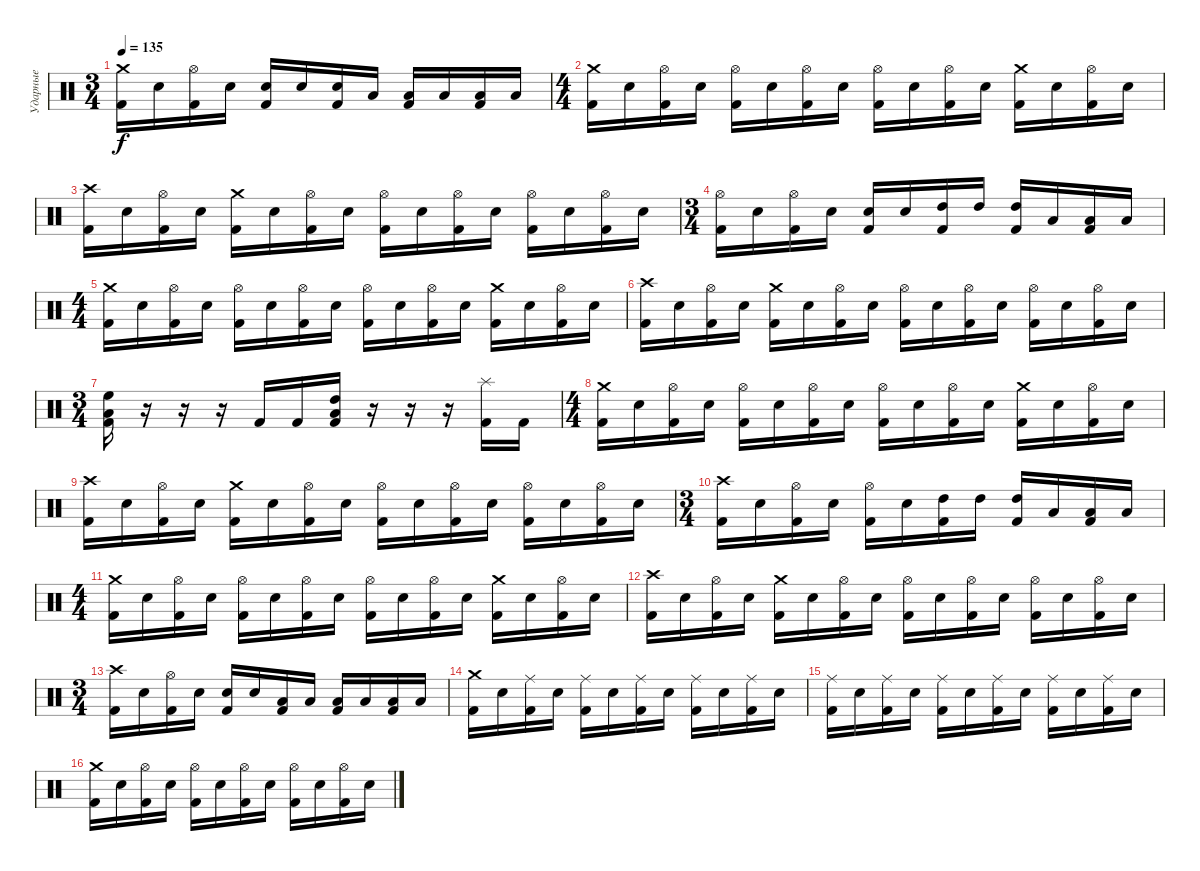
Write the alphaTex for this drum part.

\track ("Ударные" "Ударные") {instrument percussion}
\staff {score}
\articulation defaults
\ts (3 4)
\tempo 135
\clef neutral
\ks c
("Crash medium (hit)" "Kick (hit) 2").16{dy f} "Electric Snare (hit)".16 ("Hi-Hat (open)" "Kick (hit) 2").16 "Electric Snare (hit)".16 ("Electric Snare (hit)" "Kick (hit) 2").16 "Electric Snare (hit)".16 ("Electric Snare (hit)" "Kick (hit) 2").16 "Low Tom (hit)".16 ("Low Tom (hit)" "Kick (hit) 2").16 "Low Floor Tom (hit)".16 ("Low Floor Tom (hit)" "Kick (hit) 2").16 "Low Floor Tom (hit)".16 |
\ts (4 4)
("Crash medium (hit)" "Kick (hit) 2").16 "Electric Snare (hit)".16 ("Hi-Hat (open)" "Kick (hit) 2").16 "Electric Snare (hit)".16 ("Hi-Hat (open)" "Kick (hit) 2").16 "Electric Snare (hit)".16 ("Hi-Hat (open)" "Kick (hit) 2").16 "Electric Snare (hit)".16 ("Hi-Hat (open)" "Kick (hit) 2").16 "Electric Snare (hit)".16 ("Hi-Hat (open)" "Kick (hit) 2").16 "Electric Snare (hit)".16 ("Crash medium (hit)" "Kick (hit) 2").16 "Electric Snare (hit)".16 ("Hi-Hat (open)" "Kick (hit) 2").16 "Electric Snare (hit)".16 |
("Crash high (hit)" "Kick (hit) 2").16 "Electric Snare (hit)".16 ("Hi-Hat (open)" "Kick (hit) 2").16 "Electric Snare (hit)".16 ("Crash medium (hit)" "Kick (hit) 2").16 "Electric Snare (hit)".16 ("Hi-Hat (open)" "Kick (hit) 2").16 "Electric Snare (hit)".16 ("Hi-Hat (open)" "Kick (hit) 2").16 "Electric Snare (hit)".16 ("Hi-Hat (open)" "Kick (hit) 2").16 "Electric Snare (hit)".16 ("Hi-Hat (open)" "Kick (hit) 2").16 "Electric Snare (hit)".16 ("Hi-Hat (open)" "Kick (hit) 2").16 "Electric Snare (hit)".16 |
\ts (3 4)
("Hi-Hat (open)" "Kick (hit) 2").16 "Electric Snare (hit)".16 ("Hi-Hat (open)" "Kick (hit) 2").16 "Electric Snare (hit)".16 ("Electric Snare (hit)" "Kick (hit) 2").16 "Electric Snare (hit)".16 ("High Tom (hit)" "Kick (hit) 2").16 "High Tom (hit)".16 ("High Tom (hit)" "Kick (hit) 2").16 "Low Tom (hit)".16 ("Low Tom (hit)" "Kick (hit) 2").16 "Low Tom (hit)".16 |
\ts (4 4)
("Crash medium (hit)" "Kick (hit) 2").16 "Electric Snare (hit)".16 ("Hi-Hat (open)" "Kick (hit) 2").16 "Electric Snare (hit)".16 ("Hi-Hat (open)" "Kick (hit) 2").16 "Electric Snare (hit)".16 ("Hi-Hat (open)" "Kick (hit) 2").16 "Electric Snare (hit)".16 ("Hi-Hat (open)" "Kick (hit) 2").16 "Electric Snare (hit)".16 ("Hi-Hat (open)" "Kick (hit) 2").16 "Electric Snare (hit)".16 ("Crash medium (hit)" "Kick (hit) 2").16 "Electric Snare (hit)".16 ("Hi-Hat (open)" "Kick (hit) 2").16 "Electric Snare (hit)".16 |
("Crash high (hit)" "Kick (hit) 2").16 "Electric Snare (hit)".16 ("Hi-Hat (open)" "Kick (hit) 2").16 "Electric Snare (hit)".16 ("Crash medium (hit)" "Kick (hit) 2").16 "Electric Snare (hit)".16 ("Hi-Hat (open)" "Kick (hit) 2").16 "Electric Snare (hit)".16 ("Hi-Hat (open)" "Kick (hit) 2").16 "Electric Snare (hit)".16 ("Hi-Hat (open)" "Kick (hit) 2").16 "Electric Snare (hit)".16 ("Hi-Hat (open)" "Kick (hit) 2").16 "Electric Snare (hit)".16 ("Hi-Hat (open)" "Kick (hit) 2").16 "Electric Snare (hit)".16 |
\ts (3 4)
("Low Tom (hit)" "High Floor Tom (hit)" "Kick (hit) 2").16 r.16 r.16 r.16 "Kick (hit) 2".16 "Kick (hit) 2".16 ("High Tom (hit)" "Low Tom (hit)" "Kick (hit) 2").16 r.16 r.16 r.16 ("Splash (hit)" "Kick (hit) 2").16 "Kick (hit) 2".16 |
\ts (4 4)
("Crash medium (hit)" "Kick (hit) 2").16 "Electric Snare (hit)".16 ("Hi-Hat (open)" "Kick (hit) 2").16 "Electric Snare (hit)".16 ("Hi-Hat (open)" "Kick (hit) 2").16 "Electric Snare (hit)".16 ("Hi-Hat (open)" "Kick (hit) 2").16 "Electric Snare (hit)".16 ("Hi-Hat (open)" "Kick (hit) 2").16 "Electric Snare (hit)".16 ("Hi-Hat (open)" "Kick (hit) 2").16 "Electric Snare (hit)".16 ("Crash medium (hit)" "Kick (hit) 2").16 "Electric Snare (hit)".16 ("Hi-Hat (open)" "Kick (hit) 2").16 "Electric Snare (hit)".16 |
("Crash high (hit)" "Kick (hit) 2").16 "Electric Snare (hit)".16 ("Hi-Hat (open)" "Kick (hit) 2").16 "Electric Snare (hit)".16 ("Crash medium (hit)" "Kick (hit) 2").16 "Electric Snare (hit)".16 ("Hi-Hat (open)" "Kick (hit) 2").16 "Electric Snare (hit)".16 ("Hi-Hat (open)" "Kick (hit) 2").16 "Electric Snare (hit)".16 ("Hi-Hat (open)" "Kick (hit) 2").16 "Electric Snare (hit)".16 ("Hi-Hat (open)" "Kick (hit) 2").16 "Electric Snare (hit)".16 ("Hi-Hat (open)" "Kick (hit) 2").16 "Electric Snare (hit)".16 |
\ts (3 4)
("Crash high (hit)" "Kick (hit) 2").16 "Electric Snare (hit)".16 ("Hi-Hat (open)" "Kick (hit) 2").16 "Electric Snare (hit)".16 ("Hi-Hat (open)" "Kick (hit) 2").16 "Electric Snare (hit)".16 ("High Tom (hit)" "Kick (hit) 2").16 "High Tom (hit)".16 ("High Tom (hit)" "Kick (hit) 2").16 "Low Tom (hit)".16 ("Low Tom (hit)" "Kick (hit) 2").16 "Low Tom (hit)".16 |
\ts (4 4)
("Crash medium (hit)" "Kick (hit) 2").16 "Electric Snare (hit)".16 ("Hi-Hat (open)" "Kick (hit) 2").16 "Electric Snare (hit)".16 ("Hi-Hat (open)" "Kick (hit) 2").16 "Electric Snare (hit)".16 ("Hi-Hat (open)" "Kick (hit) 2").16 "Electric Snare (hit)".16 ("Hi-Hat (open)" "Kick (hit) 2").16 "Electric Snare (hit)".16 ("Hi-Hat (open)" "Kick (hit) 2").16 "Electric Snare (hit)".16 ("Crash medium (hit)" "Kick (hit) 2").16 "Electric Snare (hit)".16 ("Hi-Hat (open)" "Kick (hit) 2").16 "Electric Snare (hit)".16 |
("Crash high (hit)" "Kick (hit) 2").16 "Electric Snare (hit)".16 ("Hi-Hat (open)" "Kick (hit) 2").16 "Electric Snare (hit)".16 ("Crash medium (hit)" "Kick (hit) 2").16 "Electric Snare (hit)".16 ("Hi-Hat (open)" "Kick (hit) 2").16 "Electric Snare (hit)".16 ("Hi-Hat (open)" "Kick (hit) 2").16 "Electric Snare (hit)".16 ("Hi-Hat (open)" "Kick (hit) 2").16 "Electric Snare (hit)".16 ("Hi-Hat (open)" "Kick (hit) 2").16 "Electric Snare (hit)".16 ("Hi-Hat (open)" "Kick (hit) 2").16 "Electric Snare (hit)".16 |
\ts (3 4)
("Crash high (hit)" "Kick (hit) 2").16 "Electric Snare (hit)".16 ("Hi-Hat (open)" "Kick (hit) 2").16 "Electric Snare (hit)".16 ("Electric Snare (hit)" "Kick (hit) 2").16 "Electric Snare (hit)".16 ("Low Tom (hit)" "Kick (hit) 2").16 "Low Tom (hit)".16 ("Low Tom (hit)" "Kick (hit) 2").16 "Low Floor Tom (hit)".16 ("Low Floor Tom (hit)" "Kick (hit) 2").16 "Low Floor Tom (hit)".16 |
("Crash medium (hit)" "Kick (hit) 2").16 "Electric Snare (hit)".16 ("Ride (middle)" "Kick (hit) 2").16 "Electric Snare (hit)".16 ("Ride (middle)" "Kick (hit) 2").16 "Electric Snare (hit)".16 ("Ride (middle)" "Kick (hit) 2").16 "Electric Snare (hit)".16 ("Ride (middle)" "Kick (hit) 2").16 "Electric Snare (hit)".16 ("Ride (middle)" "Kick (hit) 2").16 "Electric Snare (hit)".16 |
("Ride (middle)" "Kick (hit) 2").16 "Electric Snare (hit)".16 ("Ride (middle)" "Kick (hit) 2").16 "Electric Snare (hit)".16 ("Ride (middle)" "Kick (hit) 2").16 "Electric Snare (hit)".16 ("Ride (middle)" "Kick (hit) 2").16 "Electric Snare (hit)".16 ("Ride (middle)" "Kick (hit) 2").16 "Electric Snare (hit)".16 ("Ride (middle)" "Kick (hit) 2").16 "Electric Snare (hit)".16 |
("Crash medium (hit)" "Kick (hit) 2").16 "Electric Snare (hit)".16 ("Hi-Hat (open)" "Kick (hit) 2").16 "Electric Snare (hit)".16 ("Hi-Hat (open)" "Kick (hit) 2").16 "Electric Snare (hit)".16 ("Hi-Hat (open)" "Kick (hit) 2").16 "Electric Snare (hit)".16 ("Hi-Hat (open)" "Kick (hit) 2").16 "Electric Snare (hit)".16 ("Hi-Hat (open)" "Kick (hit) 2").16 "Electric Snare (hit)".16
